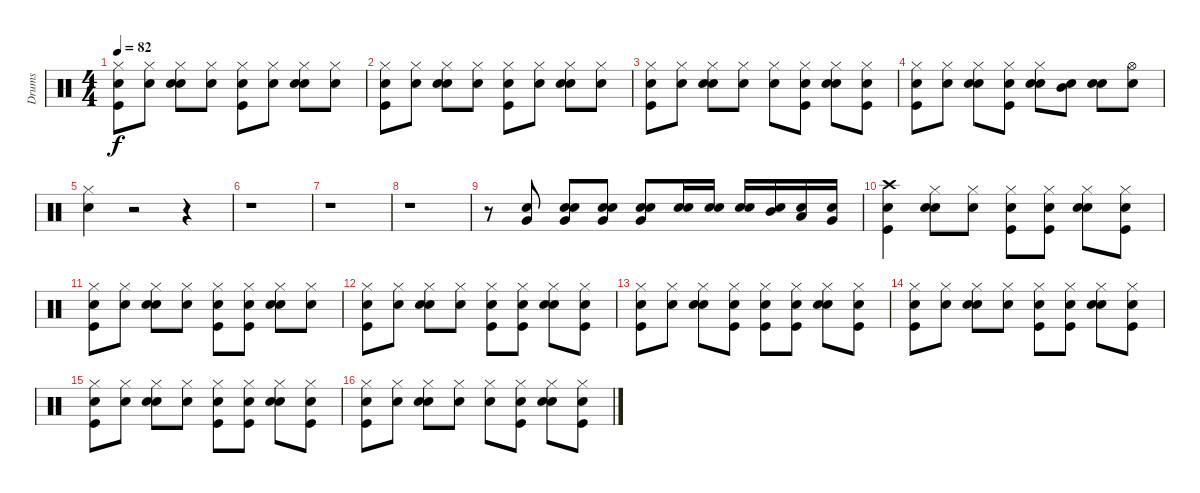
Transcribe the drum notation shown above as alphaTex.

\track ("Drums" "Drums") {instrument percussion}
\staff {score}
\articulation defaults
\ts (4 4)
\tempo 82
\clef neutral
\ks c
("Snare (hit)" "Kick (hit)" "Hi-Hat (closed)").8{dy f} ("Snare (hit)" "Hi-Hat (closed)").8 ("Snare (hit)" "Electric Snare (hit)" "Hi-Hat (closed)").8 ("Snare (hit)" "Hi-Hat (closed)").8 ("Snare (hit)" "Kick (hit)" "Hi-Hat (closed)").8 ("Snare (hit)" "Hi-Hat (closed)").8 ("Snare (hit)" "Electric Snare (hit)" "Hi-Hat (closed)").8 ("Snare (hit)" "Hi-Hat (closed)").8 |
("Snare (hit)" "Kick (hit)" "Hi-Hat (closed)").8 ("Snare (hit)" "Hi-Hat (closed)").8 ("Snare (hit)" "Electric Snare (hit)" "Hi-Hat (closed)").8 ("Snare (hit)" "Hi-Hat (closed)").8 ("Snare (hit)" "Kick (hit)" "Hi-Hat (closed)").8 ("Snare (hit)" "Hi-Hat (closed)").8 ("Snare (hit)" "Electric Snare (hit)" "Hi-Hat (closed)").8 ("Snare (hit)" "Hi-Hat (closed)").8 |
("Snare (hit)" "Kick (hit)" "Hi-Hat (closed)").8 ("Snare (hit)" "Hi-Hat (closed)").8 ("Snare (hit)" "Electric Snare (hit)" "Hi-Hat (closed)").8 ("Snare (hit)" "Hi-Hat (closed)").8 ("Snare (hit)" "Hi-Hat (closed)").8 ("Snare (hit)" "Kick (hit)" "Hi-Hat (closed)").8 ("Snare (hit)" "Electric Snare (hit)" "Hi-Hat (closed)").8 ("Snare (hit)" "Kick (hit)" "Hi-Hat (closed)").8 |
("Snare (hit)" "Kick (hit)" "Hi-Hat (closed)").8 ("Snare (hit)" "Hi-Hat (closed)").8 ("Snare (hit)" "Electric Snare (hit)" "Hi-Hat (closed)").8 ("Snare (hit)" "Kick (hit)" "Hi-Hat (closed)").8 ("Snare (hit)" "Electric Snare (hit)" "Hi-Hat (closed)").8 ("Snare (hit)" "Mid Tom (hit)").8 ("Snare (hit)" "Electric Snare (hit)").8 ("Snare (hit)" "Hi-Hat (open)").8 |
("Snare (hit)" "Hi-Hat (closed)").4 r.2 r.4 |
r.1 |
r.1 |
r.1 |
r.8 ("Electric Snare (hit)" "Very Low Tom (hit)").8 ("Snare (hit)" "Electric Snare (hit)" "Very Low Tom (hit)").8 ("Snare (hit)" "Electric Snare (hit)" "Very Low Tom (hit)").8 ("Snare (hit)" "Electric Snare (hit)" "Very Low Tom (hit)").8 ("Snare (hit)" "Electric Snare (hit)").16 ("Snare (hit)" "Electric Snare (hit)").16 ("Snare (hit)" "Electric Snare (hit)").16 ("Snare (hit)" "Mid Tom (hit)").16 ("Snare (hit)" "Low Tom (hit)").16 ("Snare (hit)" "Very Low Tom (hit)").16 |
("Snare (hit)" "Kick (hit)" "Crash high (hit)").4 ("Snare (hit)" "Electric Snare (hit)" "Hi-Hat (closed)").8 ("Snare (hit)" "Hi-Hat (closed)").8 ("Snare (hit)" "Kick (hit)" "Hi-Hat (closed)").8 ("Snare (hit)" "Kick (hit)" "Hi-Hat (closed)").8 ("Snare (hit)" "Electric Snare (hit)" "Hi-Hat (closed)").8 ("Snare (hit)" "Kick (hit)" "Hi-Hat (closed)").8 |
("Snare (hit)" "Kick (hit)" "Hi-Hat (closed)").8 ("Snare (hit)" "Hi-Hat (closed)").8 ("Snare (hit)" "Electric Snare (hit)" "Hi-Hat (closed)").8 ("Snare (hit)" "Hi-Hat (closed)").8 ("Snare (hit)" "Kick (hit)" "Hi-Hat (closed)").8 ("Snare (hit)" "Kick (hit)" "Hi-Hat (closed)").8 ("Snare (hit)" "Electric Snare (hit)" "Hi-Hat (closed)").8 ("Snare (hit)" "Hi-Hat (closed)").8 |
("Snare (hit)" "Kick (hit)" "Hi-Hat (closed)").8 ("Snare (hit)" "Hi-Hat (closed)").8 ("Snare (hit)" "Electric Snare (hit)" "Hi-Hat (closed)").8 ("Snare (hit)" "Hi-Hat (closed)").8 ("Snare (hit)" "Kick (hit)" "Hi-Hat (closed)").8 ("Snare (hit)" "Kick (hit)" "Hi-Hat (closed)").8 ("Snare (hit)" "Electric Snare (hit)" "Hi-Hat (closed)").8 ("Snare (hit)" "Kick (hit)" "Hi-Hat (closed)").8 |
("Snare (hit)" "Kick (hit)" "Hi-Hat (closed)").8 ("Snare (hit)" "Hi-Hat (closed)").8 ("Snare (hit)" "Electric Snare (hit)" "Hi-Hat (closed)").8 ("Snare (hit)" "Kick (hit)" "Hi-Hat (closed)").8 ("Snare (hit)" "Kick (hit)" "Hi-Hat (closed)").8 ("Snare (hit)" "Kick (hit)" "Hi-Hat (closed)").8 ("Snare (hit)" "Electric Snare (hit)" "Hi-Hat (closed)").8 ("Snare (hit)" "Kick (hit)" "Hi-Hat (closed)").8 |
("Snare (hit)" "Kick (hit)" "Hi-Hat (closed)").8 ("Snare (hit)" "Hi-Hat (closed)").8 ("Snare (hit)" "Electric Snare (hit)" "Hi-Hat (closed)").8 ("Snare (hit)" "Hi-Hat (closed)").8 ("Snare (hit)" "Kick (hit)" "Hi-Hat (closed)").8 ("Snare (hit)" "Kick (hit)" "Hi-Hat (closed)").8 ("Snare (hit)" "Electric Snare (hit)" "Hi-Hat (closed)").8 ("Snare (hit)" "Kick (hit)" "Hi-Hat (closed)").8 |
("Snare (hit)" "Kick (hit)" "Hi-Hat (closed)").8 ("Snare (hit)" "Hi-Hat (closed)").8 ("Snare (hit)" "Electric Snare (hit)" "Hi-Hat (closed)").8 ("Snare (hit)" "Hi-Hat (closed)").8 ("Snare (hit)" "Kick (hit)" "Hi-Hat (closed)").8 ("Snare (hit)" "Kick (hit)" "Hi-Hat (closed)").8 ("Snare (hit)" "Electric Snare (hit)" "Hi-Hat (closed)").8 ("Snare (hit)" "Kick (hit)" "Hi-Hat (closed)").8 |
("Snare (hit)" "Kick (hit)" "Hi-Hat (closed)").8 ("Snare (hit)" "Hi-Hat (closed)").8 ("Snare (hit)" "Electric Snare (hit)" "Hi-Hat (closed)").8 ("Snare (hit)" "Hi-Hat (closed)").8 ("Snare (hit)" "Hi-Hat (closed)").8 ("Snare (hit)" "Kick (hit)" "Hi-Hat (closed)").8 ("Snare (hit)" "Electric Snare (hit)" "Hi-Hat (closed)").8 ("Snare (hit)" "Kick (hit)" "Hi-Hat (closed)").8
